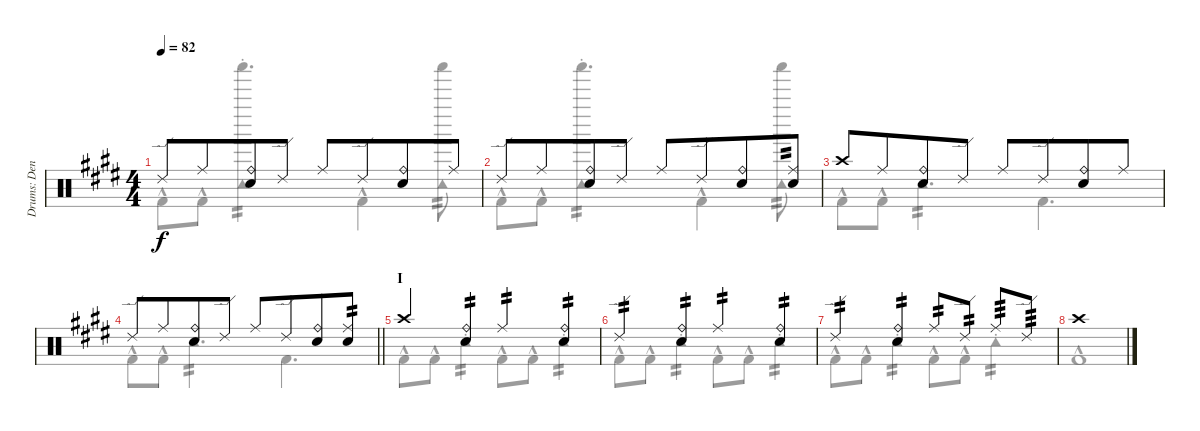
\track ("Drums: Denny" "Drums: Den") {instrument percussion}
\staff {score}
\articulation defaults
\voice
\ts (4 4)
\tempo 82
\clef neutral
\ks e "Ride (edge) 2".8{dy f} "Ride (middle)".8{beam merge}
("Ride (bell)" "Snare (hit) 2").8 "Ride (edge) 2".8 "Ride (middle)".8 "Ride (edge) 2".8{beam merge} ("Ride (bell)" "Snare (hit) 2").8 "Ride (middle)".8 |
"Ride (edge) 2".8 "Ride (middle)".8{beam merge} ("Ride (bell)" "Snare (hit) 2").8 "Ride (edge) 2".8 "Ride (middle)".8 "Ride (edge) 2".8{beam merge} ("Ride (bell)" "Snare (hit) 2").8 ("Ride (middle)" "Electric Snare (hit)").8{tp 2} |
"Crash high (hit)".8 "Ride (middle)".8{beam merge} ("Ride (bell)" "Snare (hit) 2").8 "Ride (edge) 2".8 "Ride (middle)".8 "Ride (edge) 2".8{beam merge} ("Ride (bell)" "Snare (hit) 2").8 "Ride (middle)".8 |
\barLineRight lightlight "Ride (edge) 2".8 "Ride (middle)".8{beam merge}
("Ride (bell)" "Snare (hit) 2").8 "Ride (edge) 2".8 "Ride (middle)".8 "Ride (edge) 2".8{beam merge} ("Ride (bell)" "Snare (hit) 2").8 ("Ride (middle)" "Electric Snare (hit)").8{tp 2} |
\section ("" "I")
"Crash high (hit)".4{beam merge} ("Ride (bell)" "Snare (hit) 2").4{tp 2} "Ride (middle)".4{tp 2 beam merge} ("Ride (bell)" "Snare (hit) 2").4{tp 2} |
"Ride (edge) 2".4{tp 2 beam merge} ("Ride (bell)" "Snare (hit) 2").4{tp 2} "Ride (middle)".4{tp 2 beam merge} ("Ride (bell)" "Snare (hit) 2").4{tp 2} |
"Ride (edge) 2".4{tp 2 beam merge} ("Ride (bell)" "Snare (hit) 2").4{tp 2} "Ride (middle)".8{tp 2 beam merge} "Ride (edge) 2".8{tp 2} "Ride (middle)".8{tp 3} "Ride (edge) 2".8{tp 3} |
"Crash high (hit)".1 |
|
\voice
\clef neutral
\ottava regular
\simile none
\ks e "Kick (hit) 2"{hac}.8{dy f} "Kick (hit) 2"{hac}.8{beam merge}
("Shaker (hit)" "Tambourine (hit)"{st}).4{d tp 2} "Kick (hit) 2"{hac}.4 ("Shaker (hit)" "Tambourine (hit)").8{tp 2} |
"Kick (hit) 2"{hac}.8 "Kick (hit) 2"{hac}.8{beam merge} ("Shaker (hit)" "Tambourine (hit)"{st}).4{d tp 2} "Kick (hit) 2"{hac}.4 ("Shaker (hit)" "Tambourine (hit)").8{tp 2} |
"Kick (hit) 2"{hac}.8 "Kick (hit) 2"{hac}.8{beam merge} "Tambourine (hit)".4{d tp 2 beam merge} "Kick (hit) 2".4{d} |
\barLineRight lightlight "Kick (hit) 2"{hac}.8 "Kick (hit) 2"{hac}.8{beam merge} "Tambourine (hit)".4{d tp 2 beam merge} "Kick (hit) 2".4{d}
|
"Kick (hit) 2"{hac}.8 "Kick (hit) 2"{hac}.8{beam merge} "Tambourine (hit)"{st}.4{tp 2} "Kick (hit) 2"{hac}.8 "Kick (hit) 2"{hac}.8{beam merge} "Tambourine (hit)"{st}.4{tp 2} |
"Kick (hit) 2"{hac}.8 "Kick (hit) 2"{hac}.8{beam merge} "Tambourine (hit)"{st}.4{tp 2} "Kick (hit) 2"{hac}.8 "Kick (hit) 2"{hac}.8{beam merge} "Tambourine (hit)"{st}.4{tp 2} |
"Kick (hit) 2"{hac}.8 "Kick (hit) 2"{hac}.8{beam merge} "Tambourine (hit)"{st}.4{tp 2} "Kick (hit) 2"{hac}.8 "Kick (hit) 2"{hac}.8{beam merge} "Tambourine (hit)"{st}.4{tp 2} |
"Kick (hit) 2"{hac}.1 |
|
